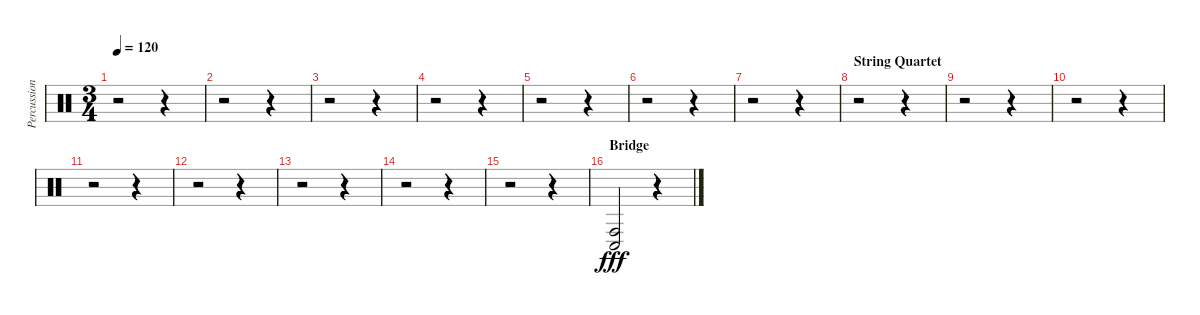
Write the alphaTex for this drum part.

\track ("Percussion" "Percussion") {instrument percussion}
\staff {score}
\articulation defaults
\ts (3 4)
\tempo 120
\clef neutral
\ks c
r.2{dy f} r.4 |
r.2 r.4 |
r.2 r.4 |
r.2 r.4 |
r.2 r.4 |
r.2 r.4 |
r.2 r.4 |
\section ("" "String Quartet")
r.2 r.4 |
r.2 r.4 |
r.2 r.4 |
r.2 r.4 |
r.2 r.4 |
r.2 r.4 |
r.2 r.4 |
r.2 r.4 |
\section ("" "Bridge")
("Conga low (hit)" "Conga high (hit)").2{dy fff} r.4
